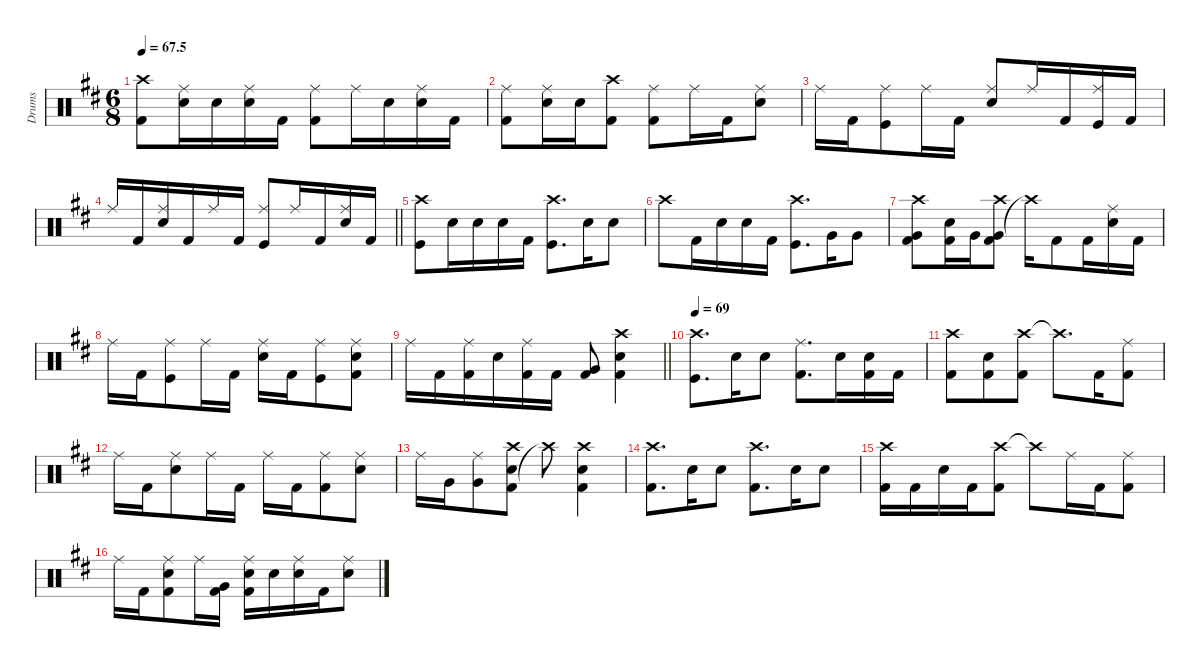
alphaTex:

\defaultSystemsLayout 4
\hideDynamics
\bracketExtendMode groupsimilarinstruments
\firstSystemTrackNameMode fullname
\otherSystemsTrackNameOrientation horizontal
\track ("Drums" "drm.") {defaultSystemsLayout 4 instrument percussion}
\staff {score}
\articulation defaults
\ts (6 8)
\tempo
67.5
\accidentals auto
\clef neutral
\ottava regular
\simile none
\ks bminor
("Kick (hit) 2"{acc forcenatural} "Crash high (hit)"{acc #}).8{dy ff beam Down} ("Snare (hit) 2"{acc forcenatural} "Ride (middle)"{acc #}).16{beam Down} "Snare (hit) 2"{acc forcenatural}.16{dy f beam Down} ("Snare (hit) 2"{acc forcenatural} "Ride (middle)"{acc #}).16{dy ff beam Down} "Kick (hit) 2"{acc forcenatural}.16{beam Down} ("Ride (middle)"{acc #} "Kick (hit) 2"{acc forcenatural}).8{beam Down} "Ride (middle)"{acc #}.16{beam Down} "Snare (hit) 2"{acc forcenatural}.16{dy mf beam Down} ("Ride (middle)"{acc #} "Snare (hit) 2"{acc forcenatural}).16{dy ff beam Down} "Kick (hit) 2"{acc forcenatural}.16{beam Down} |
("Kick (hit) 2"{acc forcenatural} "Ride (middle)"{acc #}).8{beam Down} ("Snare (hit) 2"{acc forcenatural} "Ride (middle)"{acc #}).16{beam Down} "Snare (hit) 2"{acc forcenatural}.16{dy f beam Down} ("Kick (hit) 2"{acc forcenatural} "Crash high (hit)"{acc #}).8{dy ff beam Down} ("Ride (middle)"{acc #} "Kick (hit) 2"{acc forcenatural}).8{beam Down} "Ride (middle)"{acc #}.16{beam Down} "Kick (hit) 2"{acc forcenatural}.16{beam Down} ("Ride (middle)"{acc #} "Snare (hit) 2"{acc forcenatural}).8{beam Down} |
"Ride (middle)"{acc #}.16{beam Down} "Kick (hit) 2"{acc forcenatural}.16{beam Down} ("Ride (middle)"{acc #} "Kick (hit)"{acc forcenatural}).8{beam Down} "Ride (middle)"{acc #}.16{beam Down} "Kick (hit) 2"{acc forcenatural}.16{beam Down} ("Ride (middle)"{acc #} "Snare (hit) 2"{acc forcenatural}).8{beam Up} "Ride (middle)"{acc #}.16{beam Up} "Kick (hit) 2"{acc forcenatural}.16{beam Up} ("Ride (middle)"{acc #} "Kick (hit)"{acc forcenatural}).16{beam Up} "Kick (hit) 2"{acc forcenatural}.16{beam Up} |
\barLineRight lightlight "Ride (middle)"{acc #}.16{beam Up} "Kick (hit) 2"{acc forcenatural}.16{beam Up}
("Ride (middle)"{acc #} "Snare (hit) 2"{acc forcenatural}).16{beam Up} "Kick (hit) 2"{acc forcenatural}.16{beam Up} "Ride (middle)"{acc #}.16{beam Up} "Kick (hit) 2"{acc forcenatural}.16{beam Up} ("Ride (middle)"{acc #} "Kick (hit)"{acc forcenatural}).8{beam Up} "Ride (middle)"{acc #}.16{beam Up} "Kick (hit) 2"{acc forcenatural}.16{beam Up} ("Ride (middle)"{acc #} "Snare (hit) 2"{acc forcenatural}).16{beam Up} "Kick (hit) 2"{acc forcenatural}.16{beam Up} |
("Crash high (hit)"{acc #} "Kick (hit)"{acc forcenatural}).8{beam Down} "Snare (hit) 2"{acc forcenatural}.16{beam Down} "Snare (hit) 2"{acc forcenatural}.16{beam Down} "Snare (hit) 2"{acc forcenatural}.16{beam Down} "Kick (hit) 2"{acc forcenatural}.16{beam Down} ("Crash high (hit)"{acc #} "Kick (hit)"{acc forcenatural}).8{d beam Down} "Snare (hit) 2"{acc forcenatural}.16{beam Down} "Snare (hit) 2"{acc forcenatural}.8{beam Down} |
"Crash high (hit)"{acc #}.8{beam Down} "Kick (hit) 2"{acc forcenatural}.16{beam Down} "Snare (hit) 2"{acc forcenatural}.16{beam Down} "Snare (hit) 2"{acc forcenatural}.16{beam Down} "Kick (hit) 2"{acc forcenatural}.16{beam Down} ("Crash high (hit)"{acc #} "Kick (hit)"{acc forcenatural}).8{d beam Down} "Very Low Tom (hit)"{acc forcenatural}.16{beam Down} "Very Low Tom (hit)"{acc forcenatural}.8{beam Down} |
("Kick (hit) 2"{acc forcenatural} "Very Low Tom (hit)"{acc forcenatural} "Crash high (hit)"{acc #}).8{beam Down} ("Snare (hit) 2"{acc forcenatural} "Kick (hit) 2"{acc forcenatural}).16{beam Down} "Very Low Tom (hit)"{acc forcenatural}.16{beam Down} ("Kick (hit) 2"{acc forcenatural} "Very Low Tom (hit)"{acc forcenatural} "Crash high (hit)"{acc #}).8{beam Down} "Crash high (hit)"{t acc #}.16{beam Down} "Kick (hit) 2"{acc forcenatural}.8{beam Down} "Kick (hit) 2"{acc forcenatural}.16{beam Down} ("Ride (middle)"{acc #} "Snare (hit) 2"{acc forcenatural}).16{beam Down} "Kick (hit) 2"{acc forcenatural}.16{beam Down} |
"Ride (middle)"{acc #}.16{beam Down} "Kick (hit) 2"{acc forcenatural}.16{beam Down} ("Ride (middle)"{acc #} "Kick (hit)"{acc forcenatural}).8{beam Down} "Ride (middle)"{acc #}.16{beam Down} "Kick (hit) 2"{acc forcenatural}.16{beam Down} ("Ride (middle)"{acc #} "Snare (hit) 2"{acc forcenatural}).16{beam Down} "Kick (hit) 2"{acc forcenatural}.16{beam Down} ("Ride (middle)"{acc #} "Kick (hit)"{acc forcenatural}).8{beam Down} ("Ride (middle)"{acc #} "Kick (hit) 2"{acc forcenatural} "Snare (hit) 2"{acc forcenatural}).8{beam Down} |
\barLineRight lightlight "Ride (middle)"{acc #}.16{beam Down} "Kick (hit) 2"{acc forcenatural}.16{beam Down}
("Kick (hit) 2"{acc forcenatural} "Ride (middle)"{acc #}).16{beam Down} "Snare (hit) 2"{acc forcenatural}.16{beam Down} ("Kick (hit) 2"{acc forcenatural} "Ride (middle)"{acc #}).16{beam Down} "Kick (hit) 2"{acc forcenatural}.16{beam Down} ("Kick (hit) 2"{acc forcenatural} "Very Low Tom (hit)"{acc forcenatural}).8{beam Up} ("Snare (hit) 2"{acc forcenatural} "Kick (hit) 2"{acc forcenatural} "Crash high (hit)"{acc #}).4{beam Down} |
\tempo 69
("Crash high (hit)"{acc #} "Kick (hit)"{acc forcenatural}).8{d beam Down} "Snare (hit) 2"{acc forcenatural}.16{beam Down} "Snare (hit) 2"{acc forcenatural}.8{beam Down} ("Kick (hit) 2"{acc forcenatural} "Ride (middle)"{acc #}).8{d beam Down} "Snare (hit) 2"{acc forcenatural}.16{beam Down} ("Kick (hit) 2"{acc forcenatural} "Snare (hit) 2"{acc forcenatural}).16{beam Down} "Kick (hit) 2"{acc forcenatural}.16{beam Down} |
("Kick (hit) 2"{acc forcenatural} "Crash high (hit)"{acc #}).8{beam Down} ("Kick (hit) 2"{acc forcenatural} "Snare (hit) 2"{acc forcenatural}).8{beam Down} ("Crash high (hit)"{acc #} "Kick (hit) 2"{acc forcenatural}).8{beam Down} "Crash high (hit)"{t acc #}.8{d beam Down} "Kick (hit) 2"{acc forcenatural}.16{beam Down} ("Ride (middle)"{acc #} "Kick (hit) 2"{acc forcenatural}).8{beam Down} |
"Ride (middle)"{acc #}.16{beam Down} "Kick (hit) 2"{acc forcenatural}.16{beam Down} ("Ride (middle)"{acc #} "Snare (hit) 2"{acc forcenatural}).8{beam Down} "Ride (middle)"{acc #}.16{beam Down} "Kick (hit) 2"{acc forcenatural}.16{beam Down} "Ride (middle)"{acc #}.16{beam Down} "Kick (hit) 2"{acc forcenatural}.16{beam Down} ("Kick (hit) 2"{acc forcenatural} "Ride (middle)"{acc #}).8{beam Down} ("Ride (middle)"{acc #} "Snare (hit) 2"{acc forcenatural}).8{beam Down} |
"Ride (middle)"{acc #}.16{beam Down} "Very Low Tom (hit)"{acc forcenatural}.16{beam Down} ("Very Low Tom (hit)"{acc forcenatural} "Ride (middle)"{acc #}).8{beam Down} ("Kick (hit) 2"{acc forcenatural} "Snare (hit) 2"{acc forcenatural} "Crash high (hit)"{acc #}).8{beam Down} "Crash high (hit)"{t acc #}.8{beam Down} ("Snare (hit) 2"{acc forcenatural} "Kick (hit) 2"{acc forcenatural} "Crash high (hit)"{acc #}).4{beam Down} |
("Kick (hit) 2"{acc forcenatural} "Crash high (hit)"{acc #}).8{d beam Down} "Snare (hit) 2"{acc forcenatural}.16{beam Down} "Snare (hit) 2"{acc forcenatural}.8{beam Down} ("Kick (hit) 2"{acc forcenatural} "Crash high (hit)"{acc #}).8{d beam Down} "Snare (hit) 2"{acc forcenatural}.16{beam Down} "Snare (hit) 2"{acc forcenatural}.8{beam Down} |
("Kick (hit) 2"{acc forcenatural} "Crash high (hit)"{acc #}).16{beam Down} "Kick (hit) 2"{acc forcenatural}.16{beam Down} "Snare (hit) 2"{acc forcenatural}.16{beam Down} "Kick (hit) 2"{acc forcenatural}.16{beam Down} ("Crash high (hit)"{acc #} "Kick (hit) 2"{acc forcenatural}).8{beam Down} "Crash high (hit)"{t acc #}.8{beam Down} "Ride (middle)"{acc #}.16{beam Down} "Kick (hit) 2"{acc forcenatural}.16{beam Down} ("Ride (middle)"{acc #} "Kick (hit) 2"{acc forcenatural}).8{beam Down} |
"Ride (middle)"{acc #}.16{beam Down} "Kick (hit) 2"{acc forcenatural}.16{beam Down} ("Ride (middle)"{acc #} "Kick (hit) 2"{acc forcenatural} "Snare (hit) 2"{acc forcenatural}).8{beam Down} "Ride (middle)"{acc #}.16{beam Down} ("Kick (hit) 2"{acc forcenatural} "Very Low Tom (hit)"{acc forcenatural}).16{beam Down} ("Snare (hit) 2"{acc forcenatural} "Ride (middle)"{acc #} "Kick (hit) 2"{acc forcenatural}).16{beam Down} "Snare (hit) 2"{acc forcenatural}.16{beam Down} ("Snare (hit) 2"{acc forcenatural} "Ride (middle)"{acc #}).16{beam Down} "Kick (hit) 2"{acc forcenatural}.16{beam Down} ("Snare (hit) 2"{acc forcenatural} "Ride (middle)"{acc #}).8{beam Down}
